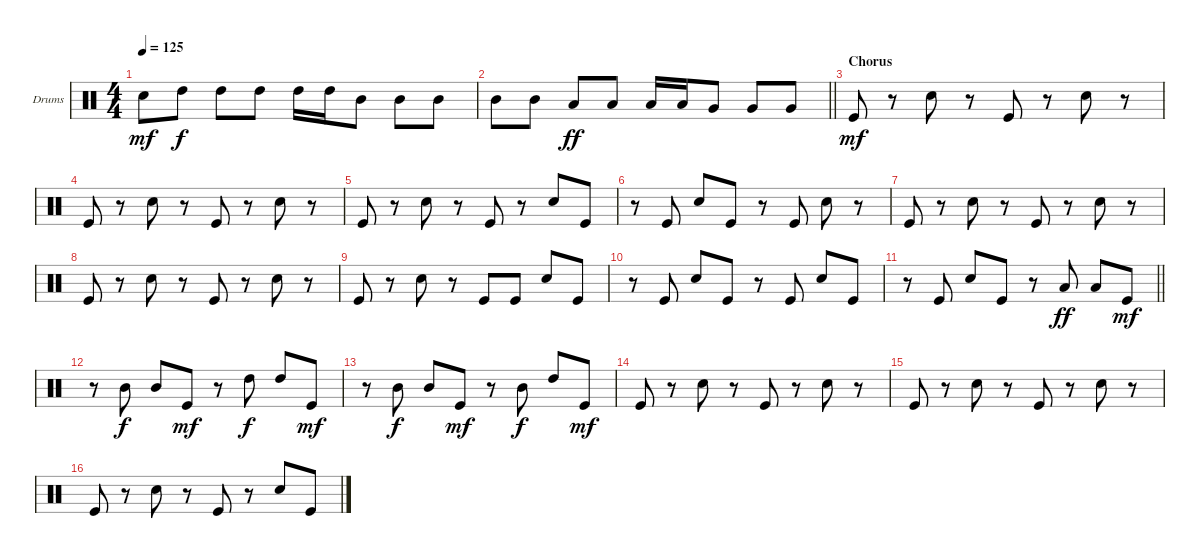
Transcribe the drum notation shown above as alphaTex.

\bracketExtendMode groupsimilarinstruments
\firstSystemTrackNameOrientation horizontal
\otherSystemsTrackNameOrientation horizontal
\track ("Nick Menza" "Drums") {instrument percussion}
\staff {score}
\articulation defaults
\ts (4 4)
\tempo 125
\clef neutral
\ks c "Snare (hit) 2".8{dy mf} "High Tom (hit)".8{dy f} "High Tom (hit)".8 "High Tom (hit)".8 "High Tom (hit)".16 "High Tom (hit)".16 "Mid Tom (hit)".8 "Mid Tom (hit)".8 "Mid Tom (hit)".8
|
\barLineRight lightlight "Mid Tom (hit)".8 "Mid Tom (hit)".8 "Low Tom (hit)".8{dy ff} "Low Tom (hit)".8 "Low Tom (hit)".16 "Low Tom (hit)".16 "Very Low Tom (hit)".8 "Very Low Tom (hit)".8 "Very Low Tom (hit)".8
|
\section ("" "Chorus")
"Kick (hit)".8{dy mf} r.8 "Snare (hit) 2".8 r.8 "Kick (hit)".8 r.8 "Snare (hit) 2".8 r.8 |
"Kick (hit)".8 r.8 "Snare (hit) 2".8 r.8 "Kick (hit)".8 r.8 "Snare (hit) 2".8 r.8 |
"Kick (hit)".8 r.8 "Snare (hit) 2".8 r.8 "Kick (hit)".8 r.8 "Snare (hit) 2".8 "Kick (hit)".8 |
r.8 "Kick (hit)".8 "Snare (hit) 2".8 "Kick (hit)".8 r.8 "Kick (hit)".8 "Snare (hit) 2".8 r.8 |
"Kick (hit)".8 r.8 "Snare (hit) 2".8 r.8 "Kick (hit)".8 r.8 "Snare (hit) 2".8 r.8 |
"Kick (hit)".8 r.8 "Snare (hit) 2".8 r.8 "Kick (hit)".8 r.8 "Snare (hit) 2".8 r.8 |
"Kick (hit)".8 r.8 "Snare (hit) 2".8 r.8 "Kick (hit)".8 "Kick (hit)".8 "Snare (hit) 2".8 "Kick (hit)".8 |
r.8 "Kick (hit)".8 "Snare (hit) 2".8 "Kick (hit)".8 r.8 "Kick (hit)".8 "Snare (hit) 2".8 "Kick (hit)".8 |
\barLineRight lightlight
r.8 "Kick (hit)".8 "Snare (hit) 2".8 "Kick (hit)".8 r.8 "Low Tom (hit)".8{dy ff} "Low Tom (hit)".8 "Kick (hit)".8{dy mf} |
r.8 "Mid Tom (hit)".8{dy f} "Mid Tom (hit)".8 "Kick (hit)".8{dy mf} r.8 "High Tom (hit)".8{dy f} "High Tom (hit)".8 "Kick (hit)".8{dy mf} |
r.8 "Mid Tom (hit)".8{dy f} "Mid Tom (hit)".8 "Kick (hit)".8{dy mf} r.8 "Mid Tom (hit)".8{dy f} "High Tom (hit)".8 "Kick (hit)".8{dy mf} |
"Kick (hit)".8 r.8 "Snare (hit) 2".8 r.8 "Kick (hit)".8 r.8 "Snare (hit) 2".8 r.8 |
"Kick (hit)".8 r.8 "Snare (hit) 2".8 r.8 "Kick (hit)".8 r.8 "Snare (hit) 2".8 r.8 |
"Kick (hit)".8 r.8 "Snare (hit) 2".8 r.8 "Kick (hit)".8 r.8 "Snare (hit) 2".8 "Kick (hit)".8
